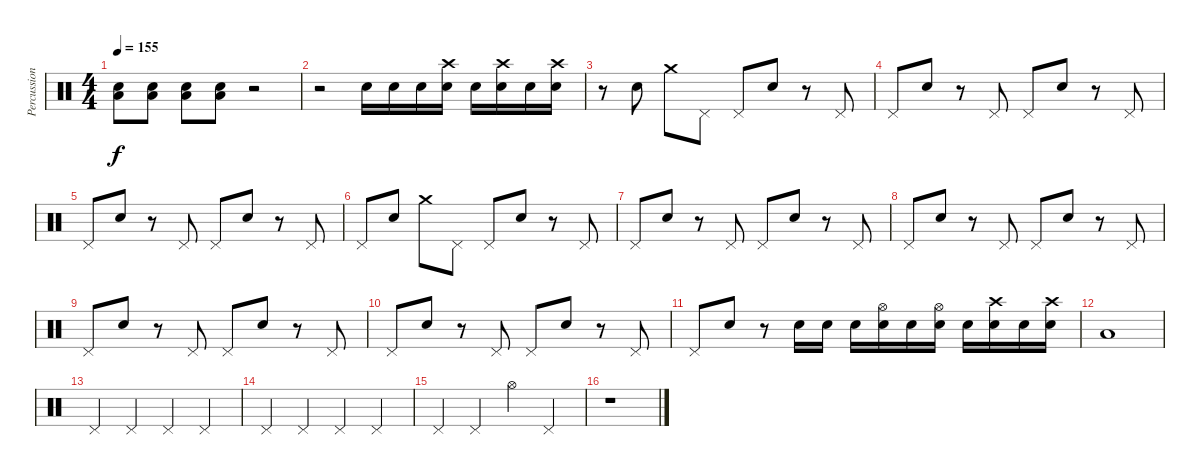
\track ("Percussion" "Percussion") {instrument percussion}
\staff {score}
\articulation defaults
\ts (4 4)
\tempo 155
\clef neutral
\ks c
("Electric Snare (hit)" "Low Floor Tom (hit)").8{dy f} ("Electric Snare (hit)" "Low Floor Tom (hit)").8 ("Electric Snare (hit)" "Low Floor Tom (hit)").8 ("Electric Snare (hit)" "Low Floor Tom (hit)").8 r.2 |
r.2 "Electric Snare (hit)".16 "Electric Snare (hit)".16 "Electric Snare (hit)".16 ("Crash high (hit)" "Electric Snare (hit)").16 "Electric Snare (hit)".16 ("Crash high (hit)" "Electric Snare (hit)").16 "Electric Snare (hit)".16 ("Crash high (hit)" "Electric Snare (hit)").16 |
r.8 "Snare (hit) 2".8 "Crash medium (hit)".8 "Pedal Hi-Hat (hit)".8 "Pedal Hi-Hat (hit)".8 "Snare (hit) 2".8 r.8 "Pedal Hi-Hat (hit)".8 |
"Pedal Hi-Hat (hit)".8 "Snare (hit) 2".8 r.8 "Pedal Hi-Hat (hit)".8 "Pedal Hi-Hat (hit)".8 "Snare (hit) 2".8 r.8 "Pedal Hi-Hat (hit)".8 |
"Pedal Hi-Hat (hit)".8 "Snare (hit) 2".8 r.8 "Pedal Hi-Hat (hit)".8 "Pedal Hi-Hat (hit)".8 "Snare (hit) 2".8 r.8 "Pedal Hi-Hat (hit)".8 |
"Pedal Hi-Hat (hit)".8 "Snare (hit) 2".8 "Crash medium (hit)".8 "Pedal Hi-Hat (hit)".8 "Pedal Hi-Hat (hit)".8 "Snare (hit) 2".8 r.8 "Pedal Hi-Hat (hit)".8 |
"Pedal Hi-Hat (hit)".8 "Snare (hit) 2".8 r.8 "Pedal Hi-Hat (hit)".8 "Pedal Hi-Hat (hit)".8 "Snare (hit) 2".8 r.8 "Pedal Hi-Hat (hit)".8 |
"Pedal Hi-Hat (hit)".8 "Snare (hit) 2".8 r.8 "Pedal Hi-Hat (hit)".8 "Pedal Hi-Hat (hit)".8 "Snare (hit) 2".8 r.8 "Pedal Hi-Hat (hit)".8 |
"Pedal Hi-Hat (hit)".8 "Snare (hit) 2".8 r.8 "Pedal Hi-Hat (hit)".8 "Pedal Hi-Hat (hit)".8 "Snare (hit) 2".8 r.8 "Pedal Hi-Hat (hit)".8 |
"Pedal Hi-Hat (hit)".8 "Snare (hit) 2".8 r.8 "Pedal Hi-Hat (hit)".8 "Pedal Hi-Hat (hit)".8 "Snare (hit) 2".8 r.8 "Pedal Hi-Hat (hit)".8 |
"Pedal Hi-Hat (hit)".8 "Snare (hit) 2".8 r.8 "Electric Snare (hit)".16 "Electric Snare (hit)".16 "Electric Snare (hit)".16 ("Hi-Hat (open)" "Electric Snare (hit)").16 "Electric Snare (hit)".16 ("Hi-Hat (open)" "Electric Snare (hit)").16 "Electric Snare (hit)".16 ("Crash high (hit)" "Electric Snare (hit)").16 "Electric Snare (hit)".16 ("Crash high (hit)" "Electric Snare (hit)").16 |
"Low Tom (hit)".1 |
"Pedal Hi-Hat (hit)".4 "Pedal Hi-Hat (hit)".4 "Pedal Hi-Hat (hit)".4 "Pedal Hi-Hat (hit)".4 |
"Pedal Hi-Hat (hit)".4 "Pedal Hi-Hat (hit)".4 "Pedal Hi-Hat (hit)".4 "Pedal Hi-Hat (hit)".4 |
"Pedal Hi-Hat (hit)".4 "Pedal Hi-Hat (hit)".4 "Hi-Hat (open)".4 "Pedal Hi-Hat (hit)".4 |
r.1
